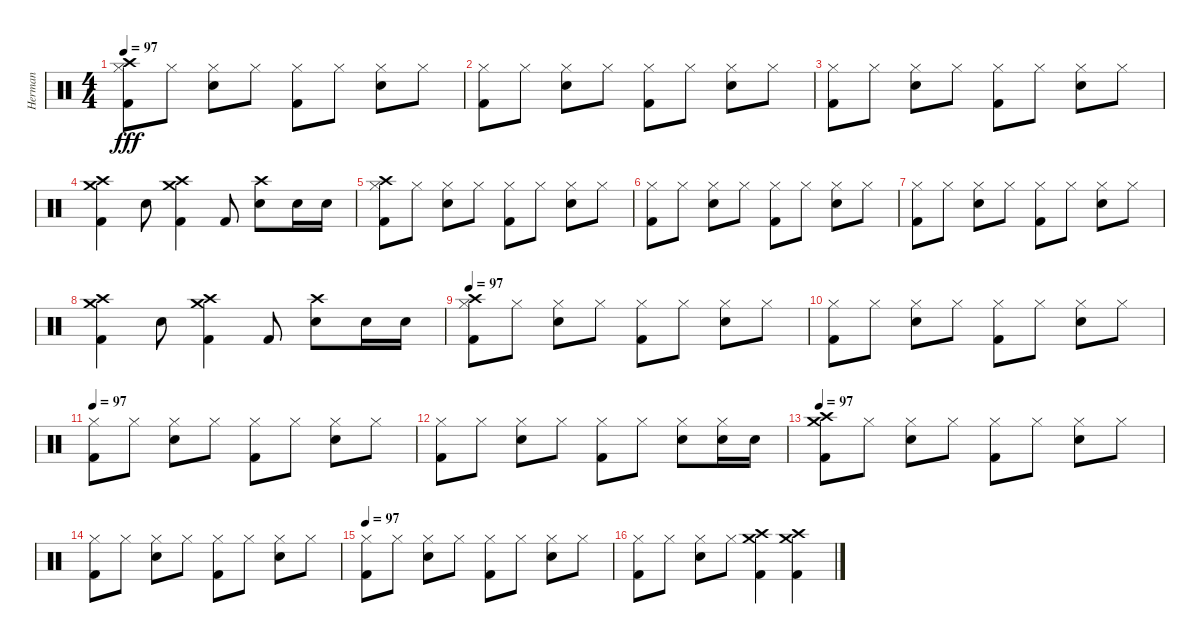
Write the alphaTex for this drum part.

\track ("Herman" "Herman") {instrument percussion}
\staff {score}
\articulation defaults
\ts (4 4)
\tempo 97
\clef neutral
\ks c
("Crash high (hit)" "Hi-Hat (closed)" "Kick (hit) 2").8{dy fff} "Hi-Hat (closed)".8 ("Hi-Hat (closed)" "Snare (hit) 2").8 "Hi-Hat (closed)".8 ("Hi-Hat (closed)" "Kick (hit) 2").8 "Hi-Hat (closed)".8 ("Hi-Hat (closed)" "Snare (hit) 2").8 "Hi-Hat (closed)".8 |
("Hi-Hat (closed)" "Kick (hit) 2").8 "Hi-Hat (closed)".8 ("Hi-Hat (closed)" "Snare (hit) 2").8 "Hi-Hat (closed)".8 ("Hi-Hat (closed)" "Kick (hit) 2").8 "Hi-Hat (closed)".8 ("Hi-Hat (closed)" "Snare (hit) 2").8 "Hi-Hat (closed)".8 |
("Hi-Hat (closed)" "Kick (hit) 2").8 "Hi-Hat (closed)".8 ("Hi-Hat (closed)" "Snare (hit) 2").8 "Hi-Hat (closed)".8 ("Hi-Hat (closed)" "Kick (hit) 2").8 "Hi-Hat (closed)".8 ("Hi-Hat (closed)" "Snare (hit) 2").8 "Hi-Hat (closed)".8 |
("Crash high (hit)" "Crash medium (hit)" "Kick (hit) 2").4 "Snare (hit) 2".8 ("Crash high (hit)" "Crash medium (hit)" "Kick (hit) 2").4 "Kick (hit) 2".8 ("Crash high (hit)" "Snare (hit) 2").8 "Snare (hit) 2".16 "Snare (hit) 2".16 |
("Crash high (hit)" "Hi-Hat (closed)" "Kick (hit) 2").8 "Hi-Hat (closed)".8 ("Hi-Hat (closed)" "Snare (hit) 2").8 "Hi-Hat (closed)".8 ("Hi-Hat (closed)" "Kick (hit) 2").8 "Hi-Hat (closed)".8 ("Hi-Hat (closed)" "Snare (hit) 2").8 "Hi-Hat (closed)".8 |
("Hi-Hat (closed)" "Kick (hit) 2").8 "Hi-Hat (closed)".8 ("Hi-Hat (closed)" "Snare (hit) 2").8 "Hi-Hat (closed)".8 ("Hi-Hat (closed)" "Kick (hit) 2").8 "Hi-Hat (closed)".8 ("Hi-Hat (closed)" "Snare (hit) 2").8 "Hi-Hat (closed)".8 |
("Hi-Hat (closed)" "Kick (hit) 2").8 "Hi-Hat (closed)".8 ("Hi-Hat (closed)" "Snare (hit) 2").8 "Hi-Hat (closed)".8 ("Hi-Hat (closed)" "Kick (hit) 2").8 "Hi-Hat (closed)".8 ("Hi-Hat (closed)" "Snare (hit) 2").8 "Hi-Hat (closed)".8 |
("Crash high (hit)" "Crash medium (hit)" "Kick (hit) 2").4 "Snare (hit) 2".8 ("Crash high (hit)" "Crash medium (hit)" "Kick (hit) 2").4 "Kick (hit) 2".8 ("Crash high (hit)" "Snare (hit) 2").8 "Snare (hit) 2".16 "Snare (hit) 2".16 |
\tempo 97
("Crash high (hit)" "Hi-Hat (closed)" "Kick (hit) 2").8 "Hi-Hat (closed)".8 ("Hi-Hat (closed)" "Snare (hit) 2").8 "Hi-Hat (closed)".8 ("Hi-Hat (closed)" "Kick (hit) 2").8 "Hi-Hat (closed)".8 ("Hi-Hat (closed)" "Snare (hit) 2").8 "Hi-Hat (closed)".8 |
("Hi-Hat (closed)" "Kick (hit) 2").8 "Hi-Hat (closed)".8 ("Hi-Hat (closed)" "Snare (hit) 2").8 "Hi-Hat (closed)".8 ("Hi-Hat (closed)" "Kick (hit) 2").8 "Hi-Hat (closed)".8 ("Hi-Hat (closed)" "Snare (hit) 2").8 "Hi-Hat (closed)".8 |
\tempo 97
("Hi-Hat (closed)" "Kick (hit) 2").8 "Hi-Hat (closed)".8 ("Hi-Hat (closed)" "Snare (hit) 2").8 "Hi-Hat (closed)".8 ("Hi-Hat (closed)" "Kick (hit) 2").8 "Hi-Hat (closed)".8 ("Hi-Hat (closed)" "Snare (hit) 2").8 "Hi-Hat (closed)".8 |
("Hi-Hat (closed)" "Kick (hit) 2").8 "Hi-Hat (closed)".8 ("Hi-Hat (closed)" "Snare (hit) 2").8 "Hi-Hat (closed)".8 ("Hi-Hat (closed)" "Kick (hit) 2").8 "Hi-Hat (closed)".8 ("Hi-Hat (closed)" "Snare (hit) 2").8 ("Hi-Hat (closed)" "Snare (hit) 2").16 "Snare (hit) 2".16 |
\tempo 97
("Crash high (hit)" "Crash medium (hit)" "Kick (hit) 2").8 "Hi-Hat (closed)".8 ("Hi-Hat (closed)" "Snare (hit) 2").8 "Hi-Hat (closed)".8 ("Hi-Hat (closed)" "Kick (hit) 2").8 "Hi-Hat (closed)".8 ("Hi-Hat (closed)" "Snare (hit) 2").8 "Hi-Hat (closed)".8 |
("Hi-Hat (closed)" "Kick (hit) 2").8 "Hi-Hat (closed)".8 ("Hi-Hat (closed)" "Snare (hit) 2").8 "Hi-Hat (closed)".8 ("Hi-Hat (closed)" "Kick (hit) 2").8 "Hi-Hat (closed)".8 ("Hi-Hat (closed)" "Snare (hit) 2").8 "Hi-Hat (closed)".8 |
\tempo 97
("Hi-Hat (closed)" "Kick (hit) 2").8 "Hi-Hat (closed)".8 ("Hi-Hat (closed)" "Snare (hit) 2").8 "Hi-Hat (closed)".8 ("Hi-Hat (closed)" "Kick (hit) 2").8 "Hi-Hat (closed)".8 ("Hi-Hat (closed)" "Snare (hit) 2").8 "Hi-Hat (closed)".8 |
("Hi-Hat (closed)" "Kick (hit) 2").8 "Hi-Hat (closed)".8 ("Hi-Hat (closed)" "Snare (hit) 2").8 "Hi-Hat (closed)".8 ("Crash high (hit)" "Crash medium (hit)" "Kick (hit) 2").4 ("Crash high (hit)" "Crash medium (hit)" "Kick (hit) 2").4
